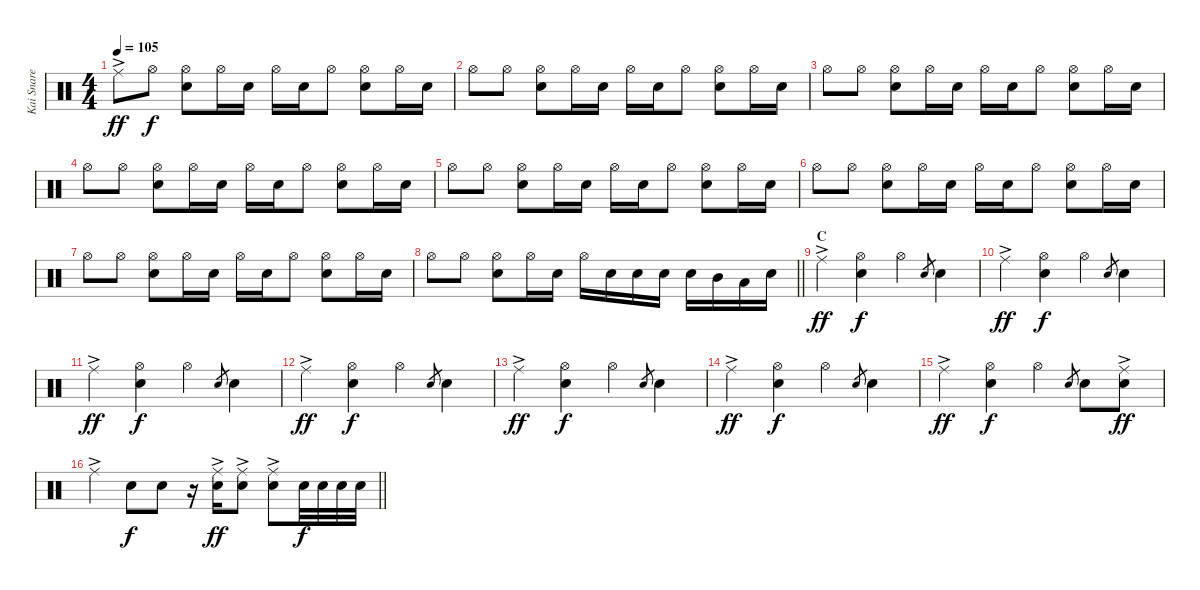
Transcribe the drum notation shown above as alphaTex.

\track ("Kai Snare" "Kai Snare") {instrument percussion}
\staff {score}
\articulation defaults
\ts (4 4)
\tempo 105
\clef neutral
\ks c "Ride (middle)"{ac}.8{dy ff} "Hi-Hat (open)".8{dy f}
("Hi-Hat (open)" "Snare (hit) 2").8 "Hi-Hat (open)".16 "Snare (hit) 2".16 "Hi-Hat (open)".16 "Snare (hit) 2".16 "Hi-Hat (open)".8 ("Hi-Hat (open)" "Snare (hit) 2").8 "Hi-Hat (open)".16 "Snare (hit) 2".16 |
"Hi-Hat (open)".8 "Hi-Hat (open)".8 ("Hi-Hat (open)" "Snare (hit) 2").8 "Hi-Hat (open)".16 "Snare (hit) 2".16 "Hi-Hat (open)".16 "Snare (hit) 2".16 "Hi-Hat (open)".8 ("Hi-Hat (open)" "Snare (hit) 2").8 "Hi-Hat (open)".16 "Snare (hit) 2".16 |
"Hi-Hat (open)".8 "Hi-Hat (open)".8 ("Hi-Hat (open)" "Snare (hit) 2").8 "Hi-Hat (open)".16 "Snare (hit) 2".16 "Hi-Hat (open)".16 "Snare (hit) 2".16 "Hi-Hat (open)".8 ("Hi-Hat (open)" "Snare (hit) 2").8 "Hi-Hat (open)".16 "Snare (hit) 2".16 |
"Hi-Hat (open)".8 "Hi-Hat (open)".8 ("Hi-Hat (open)" "Snare (hit) 2").8 "Hi-Hat (open)".16 "Snare (hit) 2".16 "Hi-Hat (open)".16 "Snare (hit) 2".16 "Hi-Hat (open)".8 ("Hi-Hat (open)" "Snare (hit) 2").8 "Hi-Hat (open)".16 "Snare (hit) 2".16 |
"Hi-Hat (open)".8 "Hi-Hat (open)".8 ("Hi-Hat (open)" "Snare (hit) 2").8 "Hi-Hat (open)".16 "Snare (hit) 2".16 "Hi-Hat (open)".16 "Snare (hit) 2".16 "Hi-Hat (open)".8 ("Hi-Hat (open)" "Snare (hit) 2").8 "Hi-Hat (open)".16 "Snare (hit) 2".16 |
"Hi-Hat (open)".8 "Hi-Hat (open)".8 ("Hi-Hat (open)" "Snare (hit) 2").8 "Hi-Hat (open)".16 "Snare (hit) 2".16 "Hi-Hat (open)".16 "Snare (hit) 2".16 "Hi-Hat (open)".8 ("Hi-Hat (open)" "Snare (hit) 2").8 "Hi-Hat (open)".16 "Snare (hit) 2".16 |
"Hi-Hat (open)".8 "Hi-Hat (open)".8 ("Hi-Hat (open)" "Snare (hit) 2").8 "Hi-Hat (open)".16 "Snare (hit) 2".16 "Hi-Hat (open)".16 "Snare (hit) 2".16 "Hi-Hat (open)".8 ("Hi-Hat (open)" "Snare (hit) 2").8 "Hi-Hat (open)".16 "Snare (hit) 2".16 |
\barLineRight lightlight "Hi-Hat (open)".8 "Hi-Hat (open)".8
("Hi-Hat (open)" "Snare (hit) 2").8 "Hi-Hat (open)".16 "Snare (hit) 2".16 "Hi-Hat (open)".16 "Snare (hit) 2".16 "Snare (hit) 2".16 "Snare (hit) 2".16 "Snare (hit) 2".16 "Mid Tom (hit)".16 "Low Tom (hit)".16 "Snare (hit) 2".16 |
\section ("" "C")
"Ride (middle)"{ac}.4{dy ff} ("Hi-Hat (open)" "Snare (hit) 2").4{dy f} "Hi-Hat (open)".4 "Snare (hit) 2".8{gr} "Snare (hit) 2".4 |
"Ride (middle)"{ac}.4{dy ff} ("Hi-Hat (open)" "Snare (hit) 2").4{dy f} "Hi-Hat (open)".4 "Snare (hit) 2".8{gr} "Snare (hit) 2".4 |
"Ride (middle)"{ac}.4{dy ff} ("Hi-Hat (open)" "Snare (hit) 2").4{dy f} "Hi-Hat (open)".4 "Snare (hit) 2".8{gr} "Snare (hit) 2".4 |
"Ride (middle)"{ac}.4{dy ff} ("Hi-Hat (open)" "Snare (hit) 2").4{dy f} "Hi-Hat (open)".4 "Snare (hit) 2".8{gr} "Snare (hit) 2".4 |
"Ride (middle)"{ac}.4{dy ff} ("Hi-Hat (open)" "Snare (hit) 2").4{dy f} "Hi-Hat (open)".4 "Snare (hit) 2".8{gr} "Snare (hit) 2".4 |
"Ride (middle)"{ac}.4{dy ff} ("Hi-Hat (open)" "Snare (hit) 2").4{dy f} "Hi-Hat (open)".4 "Snare (hit) 2".8{gr} "Snare (hit) 2".4 |
"Ride (middle)"{ac}.4{dy ff} ("Hi-Hat (open)" "Snare (hit) 2").4{dy f} "Hi-Hat (open)".4 "Snare (hit) 2".8{gr} "Snare (hit) 2".8 ("Ride (middle)"{ac} "Snare (hit) 2").8{dy ff} |
\barLineRight lightlight "Ride (middle)"{ac}.4 "Snare (hit) 2".8{dy f} "Snare (hit) 2".8
r.16 ("Ride (middle)"{ac} "Snare (hit) 2").16{dy ff} ("Ride (middle)"{ac} "Snare (hit) 2").8 ("Ride (middle)"{ac} "Snare (hit) 2").8 "Snare (hit) 2".32{dy f} "Snare (hit) 2".32 "Snare (hit) 2".32 "Snare (hit) 2".32
